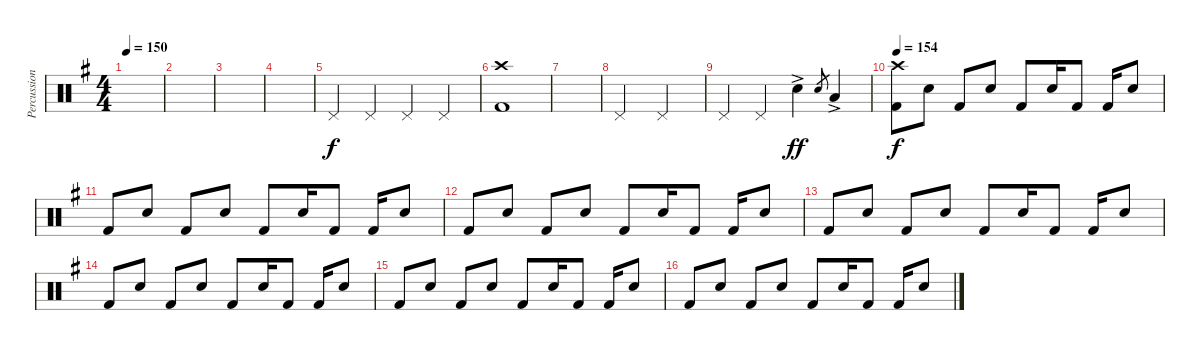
\track ("Percussion" "Percussion") {instrument percussion}
\staff {score}
\articulation defaults
\ts (4 4)
\tempo 150
\clef neutral
\ks eminor
|
|
|
|
"Pedal Hi-Hat (hit)".4 "Pedal Hi-Hat (hit)".4 "Pedal Hi-Hat (hit)".4 "Pedal Hi-Hat (hit)".4 |
("Kick (hit) 2" "Crash high (hit)").1 |
|
"Pedal Hi-Hat (hit)".2 "Pedal Hi-Hat (hit)".2 |
"Pedal Hi-Hat (hit)".4 "Pedal Hi-Hat (hit)".4 "Electric Snare (hit)"{ac}.4{dy ff} "Electric Snare (hit)".8{gr} "Low Floor Tom (hit)"{ac}.4 |
\tempo 154
("Kick (hit) 2" "Crash high (hit)").8{dy f} "Electric Snare (hit)".8 "Kick (hit) 2".8 "Electric Snare (hit)".8 "Kick (hit) 2".8 "Electric Snare (hit)".16 "Kick (hit) 2".8 "Kick (hit) 2".16 "Electric Snare (hit)".8 |
"Kick (hit) 2".8 "Electric Snare (hit)".8 "Kick (hit) 2".8 "Electric Snare (hit)".8 "Kick (hit) 2".8 "Electric Snare (hit)".16 "Kick (hit) 2".8 "Kick (hit) 2".16 "Electric Snare (hit)".8 |
"Kick (hit) 2".8 "Electric Snare (hit)".8 "Kick (hit) 2".8 "Electric Snare (hit)".8 "Kick (hit) 2".8 "Electric Snare (hit)".16 "Kick (hit) 2".8 "Kick (hit) 2".16 "Electric Snare (hit)".8 |
"Kick (hit) 2".8 "Electric Snare (hit)".8 "Kick (hit) 2".8 "Electric Snare (hit)".8 "Kick (hit) 2".8 "Electric Snare (hit)".16 "Kick (hit) 2".8 "Kick (hit) 2".16 "Electric Snare (hit)".8 |
"Kick (hit) 2".8 "Electric Snare (hit)".8 "Kick (hit) 2".8 "Electric Snare (hit)".8 "Kick (hit) 2".8 "Electric Snare (hit)".16 "Kick (hit) 2".8 "Kick (hit) 2".16 "Electric Snare (hit)".8 |
"Kick (hit) 2".8 "Electric Snare (hit)".8 "Kick (hit) 2".8 "Electric Snare (hit)".8 "Kick (hit) 2".8 "Electric Snare (hit)".16 "Kick (hit) 2".8 "Kick (hit) 2".16 "Electric Snare (hit)".8 |
"Kick (hit) 2".8 "Electric Snare (hit)".8 "Kick (hit) 2".8 "Electric Snare (hit)".8 "Kick (hit) 2".8 "Electric Snare (hit)".16 "Kick (hit) 2".8 "Kick (hit) 2".16 "Electric Snare (hit)".8
